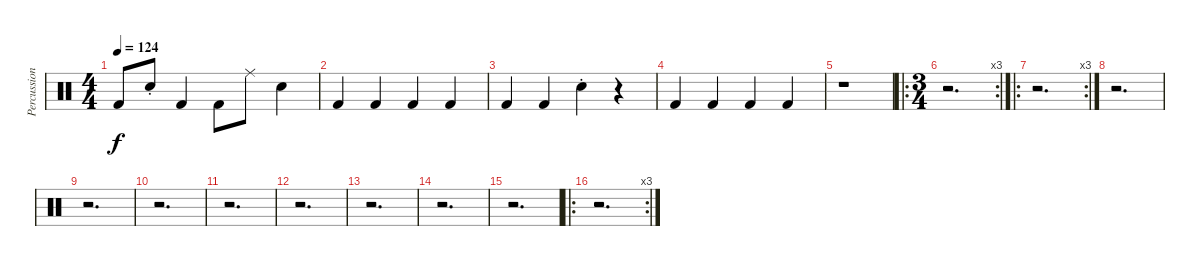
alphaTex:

\track ("Percussion" "Percussion") {instrument percussion}
\staff {score}
\articulation defaults
\ts (4 4)
\tempo 124
\clef neutral
\ks c "Kick (hit) 2".8{dy f} "Snare (hit) 2"{st}.8 "Kick (hit) 2".4 "Kick (hit) 2".8 "Ride (middle)".8 "Snare (hit) 2".4
|
"Kick (hit) 2".4 "Kick (hit) 2".4 "Kick (hit) 2".4 "Kick (hit) 2".4 |
"Kick (hit) 2".4 "Kick (hit) 2".4 "Snare (hit) 2"{st}.4 r.4 |
"Kick (hit) 2".4 "Kick (hit) 2".4 "Kick (hit) 2".4 "Kick (hit) 2".4 |
r.1 |
\ro
\rc 3
\ts (3 4)
r.2{d} |
\ro
\rc 3
r.2{d} |
r.2{d} |
r.2{d} |
r.2{d} |
r.2{d} |
r.2{d} |
r.2{d} |
r.2{d} |
r.2{d} |
\ro
\rc 3
r.2{d}
